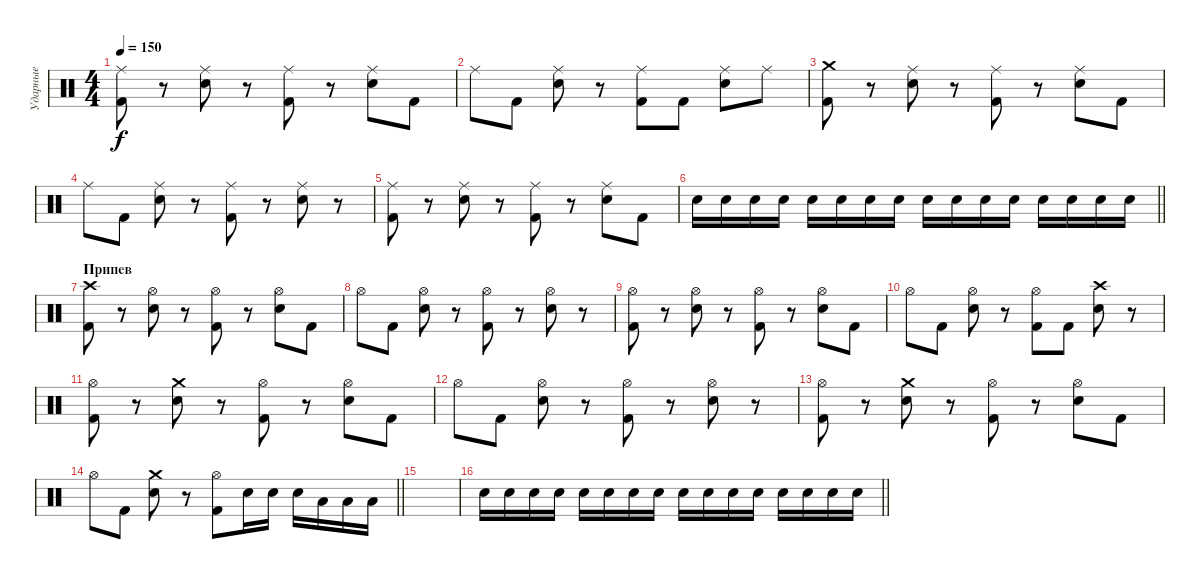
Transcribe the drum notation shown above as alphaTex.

\track ("Ударные" "Ударные") {instrument percussion}
\staff {score}
\articulation defaults
\ts (4 4)
\tempo 150
\clef neutral
\ks c
("Ride (middle)" "Kick (hit) 2").8{dy f} r.8 ("Ride (middle)" "Snare (hit) 2").8 r.8 ("Ride (middle)" "Kick (hit) 2").8 r.8 ("Ride (middle)" "Snare (hit) 2").8 "Kick (hit) 2".8 |
"Ride (middle)".8 "Kick (hit) 2".8 ("Ride (middle)" "Snare (hit) 2").8 r.8 ("Ride (middle)" "Kick (hit) 2").8 "Kick (hit) 2".8 ("Ride (middle)" "Snare (hit) 2").8 "Ride (middle)".8 |
("Crash medium (hit)" "Kick (hit) 2").8 r.8 ("Ride (middle)" "Snare (hit) 2").8 r.8 ("Ride (middle)" "Kick (hit) 2").8 r.8 ("Ride (middle)" "Snare (hit) 2").8 "Kick (hit) 2".8 |
"Ride (middle)".8 "Kick (hit) 2".8 ("Ride (middle)" "Snare (hit) 2").8 r.8 ("Ride (middle)" "Kick (hit) 2").8 r.8 ("Ride (middle)" "Snare (hit) 2").8 r.8 |
("Ride (middle)" "Kick (hit) 2").8 r.8 ("Ride (middle)" "Snare (hit) 2").8 r.8 ("Ride (middle)" "Kick (hit) 2").8 r.8 ("Ride (middle)" "Snare (hit) 2").8 "Kick (hit) 2".8 |
\barLineRight lightlight "Snare (hit) 2".16 "Snare (hit) 2".16 "Snare (hit) 2".16 "Snare (hit) 2".16 "Snare (hit) 2".16 "Snare (hit) 2".16 "Snare (hit) 2".16 "Snare (hit) 2".16 "Snare (hit) 2".16 "Snare (hit) 2".16 "Snare (hit) 2".16 "Snare (hit) 2".16 "Snare (hit) 2".16 "Snare (hit) 2".16 "Snare (hit) 2".16 "Snare (hit) 2".16
|
\section ("" "Припев")
("Crash high (hit)" "Kick (hit) 2").8 r.8 ("Hi-Hat (open)" "Snare (hit) 2").8 r.8 ("Hi-Hat (open)" "Kick (hit) 2").8 r.8 ("Hi-Hat (open)" "Snare (hit) 2").8 "Kick (hit) 2".8 |
"Hi-Hat (open)".8 "Kick (hit) 2".8 ("Hi-Hat (open)" "Snare (hit) 2").8 r.8 ("Hi-Hat (open)" "Kick (hit) 2").8 r.8 ("Hi-Hat (open)" "Snare (hit) 2").8 r.8 |
("Hi-Hat (open)" "Kick (hit) 2").8 r.8 ("Hi-Hat (open)" "Snare (hit) 2").8 r.8 ("Hi-Hat (open)" "Kick (hit) 2").8 r.8 ("Hi-Hat (open)" "Snare (hit) 2").8 "Kick (hit) 2".8 |
"Hi-Hat (open)".8 "Kick (hit) 2".8 ("Hi-Hat (open)" "Snare (hit) 2").8 r.8 ("Hi-Hat (open)" "Kick (hit) 2").8 "Kick (hit) 2".8 ("Crash high (hit)" "Snare (hit) 2").8 r.8 |
("Hi-Hat (open)" "Kick (hit) 2").8 r.8 ("Crash medium (hit)" "Snare (hit) 2").8 r.8 ("Hi-Hat (open)" "Kick (hit) 2").8 r.8 ("Hi-Hat (open)" "Snare (hit) 2").8 "Kick (hit) 2".8 |
"Hi-Hat (open)".8 "Kick (hit) 2".8 ("Hi-Hat (open)" "Snare (hit) 2").8 r.8 ("Hi-Hat (open)" "Kick (hit) 2").8 r.8 ("Hi-Hat (open)" "Snare (hit) 2").8 r.8 |
("Hi-Hat (open)" "Kick (hit) 2").8 r.8 ("Crash medium (hit)" "Snare (hit) 2").8 r.8 ("Hi-Hat (open)" "Kick (hit) 2").8 r.8 ("Hi-Hat (open)" "Snare (hit) 2").8 "Kick (hit) 2".8 |
\barLineRight lightlight "Hi-Hat (open)".8 "Kick (hit) 2".8
("Crash medium (hit)" "Snare (hit) 2").8 r.8 ("Hi-Hat (open)" "Kick (hit) 2").8 "Snare (hit) 2".16 "Snare (hit) 2".16 "Snare (hit) 2".16 "Low Floor Tom (hit)".16 "Low Floor Tom (hit)".16 "Low Floor Tom (hit)".16 |
|
\barLineRight lightlight "Snare (hit) 2".16 "Snare (hit) 2".16 "Snare (hit) 2".16 "Snare (hit) 2".16 "Snare (hit) 2".16 "Snare (hit) 2".16 "Snare (hit) 2".16 "Snare (hit) 2".16 "Snare (hit) 2".16 "Snare (hit) 2".16 "Snare (hit) 2".16 "Snare (hit) 2".16 "Snare (hit) 2".16 "Snare (hit) 2".16 "Snare (hit) 2".16 "Snare (hit) 2".16
